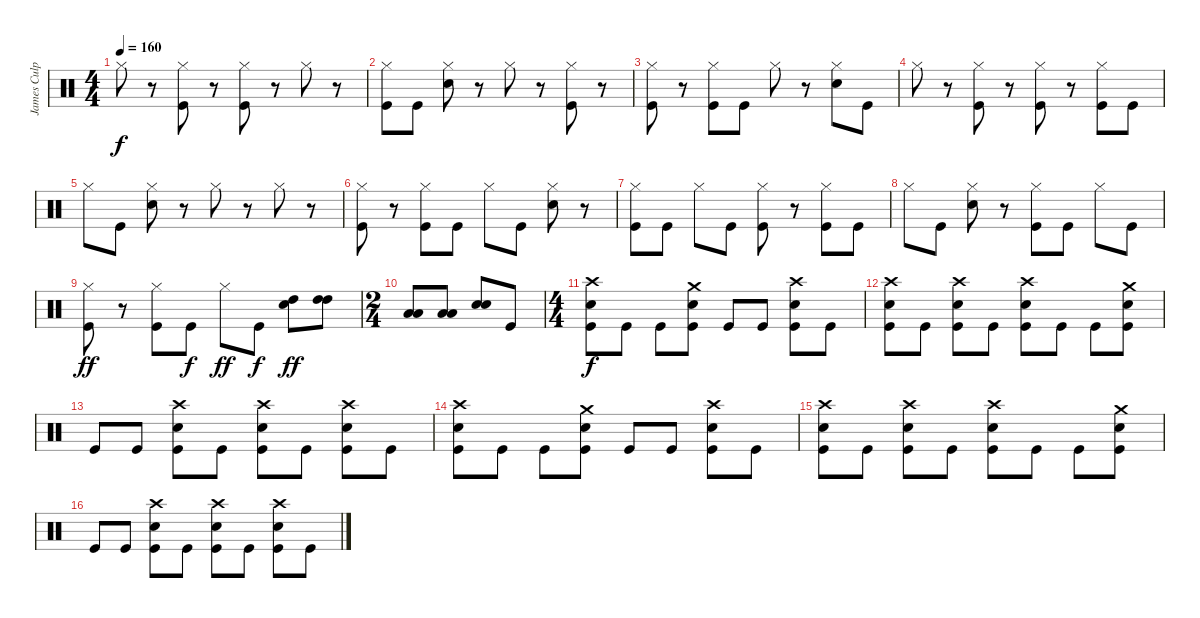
\track ("James Culpepper - drums" "James Culp") {instrument percussion}
\staff {score}
\articulation defaults
\ts (4 4)
\tempo 160
\clef neutral
\ks c "Hi-Hat (closed)".8{dy f}
r.8 ("Hi-Hat (closed)" "Kick (hit)").8 r.8 ("Hi-Hat (closed)" "Kick (hit)").8 r.8 "Hi-Hat (closed)".8 r.8 |
("Hi-Hat (closed)" "Kick (hit)").8 "Kick (hit)".8 ("Hi-Hat (closed)" "Snare (hit) 2").8 r.8 "Hi-Hat (closed)".8 r.8 ("Hi-Hat (closed)" "Kick (hit)").8 r.8 |
("Hi-Hat (closed)" "Kick (hit)").8 r.8 ("Hi-Hat (closed)" "Kick (hit)").8 "Kick (hit)".8 "Hi-Hat (closed)".8 r.8 ("Hi-Hat (closed)" "Snare (hit) 2").8 "Kick (hit)".8 |
"Hi-Hat (closed)".8 r.8 ("Hi-Hat (closed)" "Kick (hit)").8 r.8 ("Hi-Hat (closed)" "Kick (hit)").8 r.8 ("Hi-Hat (closed)" "Kick (hit)").8 "Kick (hit)".8 |
"Hi-Hat (closed)".8 "Kick (hit)".8 ("Hi-Hat (closed)" "Snare (hit) 2").8 r.8 "Hi-Hat (closed)".8 r.8 "Hi-Hat (closed)".8 r.8 |
("Hi-Hat (closed)" "Kick (hit)").8 r.8 ("Hi-Hat (closed)" "Kick (hit)").8 "Kick (hit)".8 "Hi-Hat (closed)".8 "Kick (hit)".8 ("Hi-Hat (closed)" "Snare (hit) 2").8 r.8 |
("Hi-Hat (closed)" "Kick (hit)").8 "Kick (hit)".8 "Hi-Hat (closed)".8 "Kick (hit)".8 ("Hi-Hat (closed)" "Kick (hit)").8 r.8 ("Hi-Hat (closed)" "Kick (hit)").8 "Kick (hit)".8 |
"Hi-Hat (closed)".8 "Kick (hit)".8 ("Hi-Hat (closed)" "Snare (hit) 2").8 r.8 ("Hi-Hat (closed)" "Kick (hit)").8 "Kick (hit)".8 "Hi-Hat (closed)".8 "Kick (hit)".8 |
("Hi-Hat (closed)" "Kick (hit)").8{dy ff} r.8 ("Hi-Hat (closed)" "Kick (hit)").8 "Kick (hit)".8{dy f} "Hi-Hat (closed)".8{dy ff} "Kick (hit)".8{dy f} ("High Tom (hit)" "Snare (hit) 2").8{dy ff} ("High Tom (hit)" "High Tom (hit)").8 |
\ts (2 4)
("Low Tom (hit)" "Low Tom (hit)").8 ("Low Tom (hit)" "Low Tom (hit)").8 ("Snare (hit) 2" "Snare (hit) 2").8 "Kick (hit)".8 |
\ts (4 4)
("Crash high (hit)" "Snare (hit) 2" "Kick (hit)").8{dy f} "Kick (hit)".8 "Kick (hit)".8 ("Crash medium (hit)" "Snare (hit) 2" "Kick (hit)").8 "Kick (hit)".8 "Kick (hit)".8 ("Crash high (hit)" "Snare (hit) 2" "Kick (hit)").8 "Kick (hit)".8 |
("Crash high (hit)" "Snare (hit) 2" "Kick (hit)").8 "Kick (hit)".8 ("Crash high (hit)" "Snare (hit) 2" "Kick (hit)").8 "Kick (hit)".8 ("Crash high (hit)" "Snare (hit) 2" "Kick (hit)").8 "Kick (hit)".8 "Kick (hit)".8 ("Crash medium (hit)" "Snare (hit) 2" "Kick (hit)").8 |
"Kick (hit)".8 "Kick (hit)".8 ("Crash high (hit)" "Snare (hit) 2" "Kick (hit)").8 "Kick (hit)".8 ("Crash high (hit)" "Snare (hit) 2" "Kick (hit)").8 "Kick (hit)".8 ("Crash high (hit)" "Snare (hit) 2" "Kick (hit)").8 "Kick (hit)".8 |
("Crash high (hit)" "Snare (hit) 2" "Kick (hit)").8 "Kick (hit)".8 "Kick (hit)".8 ("Crash medium (hit)" "Snare (hit) 2" "Kick (hit)").8 "Kick (hit)".8 "Kick (hit)".8 ("Crash high (hit)" "Snare (hit) 2" "Kick (hit)").8 "Kick (hit)".8 |
("Crash high (hit)" "Snare (hit) 2" "Kick (hit)").8 "Kick (hit)".8 ("Crash high (hit)" "Snare (hit) 2" "Kick (hit)").8 "Kick (hit)".8 ("Crash high (hit)" "Snare (hit) 2" "Kick (hit)").8 "Kick (hit)".8 "Kick (hit)".8 ("Crash medium (hit)" "Snare (hit) 2" "Kick (hit)").8 |
"Kick (hit)".8 "Kick (hit)".8 ("Crash high (hit)" "Snare (hit) 2" "Kick (hit)").8 "Kick (hit)".8 ("Crash high (hit)" "Snare (hit) 2" "Kick (hit)").8 "Kick (hit)".8 ("Crash high (hit)" "Snare (hit) 2" "Kick (hit)").8 "Kick (hit)".8
